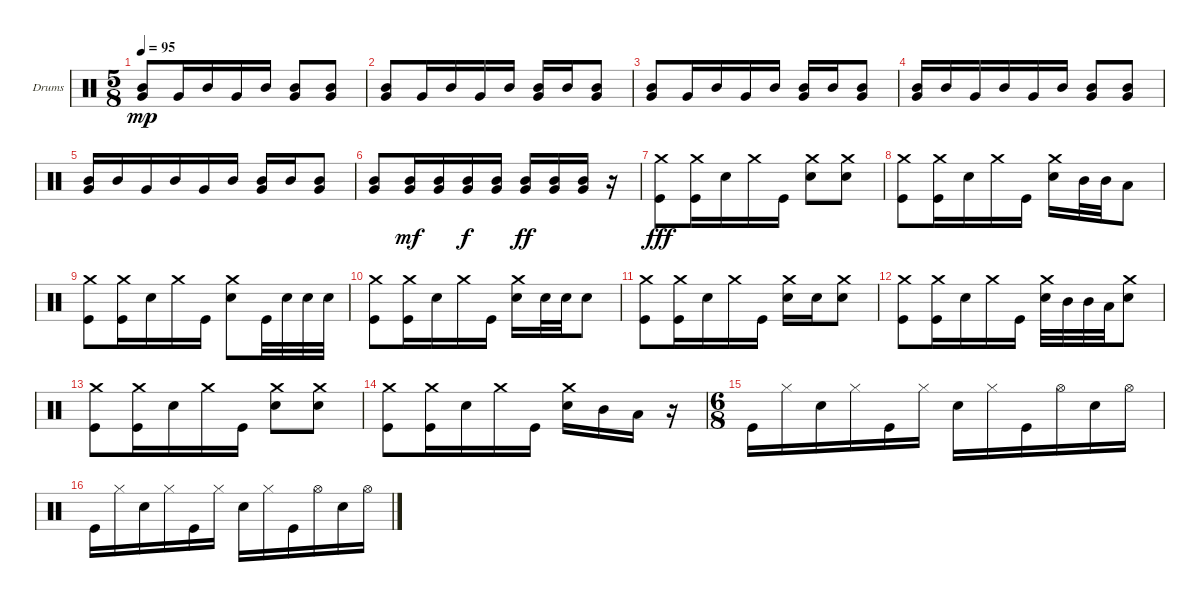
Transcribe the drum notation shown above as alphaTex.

\bracketExtendMode groupsimilarinstruments
\firstSystemTrackNameOrientation horizontal
\otherSystemsTrackNameOrientation horizontal
\track ("Andrew Forsman" "Drums") {instrument percussion}
\staff {score}
\articulation defaults
\ts (5 8)
\tempo 95
\clef neutral
\scale
0.262911
\ks c
("Mid Tom (hit)" "Very Low Tom (hit)").8{dy mp} "Very Low Tom (hit)".16 "Mid Tom (hit)".16 "Very Low Tom (hit)".16 "Mid Tom (hit)".16 ("Mid Tom (hit)" "Very Low Tom (hit)").8 ("Very Low Tom (hit)" "Mid Tom (hit)").8 |
\scale
0.333333 ("Mid Tom (hit)" "Very Low Tom (hit)").8 "Very Low Tom (hit)".16 "Mid Tom (hit)".16 "Very Low Tom (hit)".16 "Mid Tom (hit)".16 ("Mid Tom (hit)" "Very Low Tom (hit)").16 "Mid Tom (hit)".16 ("Very Low Tom (hit)" "Mid Tom (hit)").8 |
("Mid Tom (hit)" "Very Low Tom (hit)").8 "Very Low Tom (hit)".16 "Mid Tom (hit)".16 "Very Low Tom (hit)".16 "Mid Tom (hit)".16 ("Mid Tom (hit)" "Very Low Tom (hit)").16 "Mid Tom (hit)".16 ("Very Low Tom (hit)" "Mid Tom (hit)").8 |
("Mid Tom (hit)" "Very Low Tom (hit)").16 "Mid Tom (hit)".16 "Very Low Tom (hit)".16 "Mid Tom (hit)".16 "Very Low Tom (hit)".16 "Mid Tom (hit)".16 ("Mid Tom (hit)" "Very Low Tom (hit)").8 ("Very Low Tom (hit)" "Mid Tom (hit)").8 |
("Mid Tom (hit)" "Very Low Tom (hit)").16 "Mid Tom (hit)".16 "Very Low Tom (hit)".16 "Mid Tom (hit)".16 "Very Low Tom (hit)".16 "Mid Tom (hit)".16 ("Mid Tom (hit)" "Very Low Tom (hit)").16 "Mid Tom (hit)".16 ("Very Low Tom (hit)" "Mid Tom (hit)").8 |
("Mid Tom (hit)" "Very Low Tom (hit)").8 ("Mid Tom (hit)" "Very Low Tom (hit)").16{dy mf} ("Very Low Tom (hit)" "Mid Tom (hit)").16 ("Mid Tom (hit)" "Very Low Tom (hit)").16{dy f} ("Mid Tom (hit)" "Very Low Tom (hit)").16 ("Very Low Tom (hit)" "Mid Tom (hit)").16{dy ff} ("Very Low Tom (hit)" "Mid Tom (hit)").16 ("Mid Tom (hit)" "Very Low Tom (hit)").16 r.16 |
\beaming (8 3 2)
\scale
0.333333 ("Kick (hit)" "Crash medium (hit)").8{dy fff} ("Kick (hit)" "Crash medium (hit)").16 "Snare (hit) 2".16 "Crash medium (hit)".16 "Kick (hit)".16 ("Snare (hit) 2" "Crash medium (hit)").8 ("Snare (hit) 2" "Crash medium (hit)").8 |
\scale
0.333333 ("Kick (hit)" "Crash medium (hit)").8 ("Kick (hit)" "Crash medium (hit)").16 "Snare (hit) 2".16 "Crash medium (hit)".16 "Kick (hit)".16 ("Snare (hit) 2" "Crash medium (hit)").16 "Mid Tom (hit)".32 "Mid Tom (hit)".32 "Low Tom (hit)".8 |
\scale
0.333333 ("Kick (hit)" "Crash medium (hit)").8 ("Kick (hit)" "Crash medium (hit)").16 "Snare (hit) 2".16 "Crash medium (hit)".16 "Kick (hit)".16 ("Snare (hit) 2" "Crash medium (hit)").8 "Kick (hit)".32 "Snare (hit) 2".32 "Snare (hit) 2".32 "Snare (hit) 2".32 |
\scale
0.333333 ("Kick (hit)" "Crash medium (hit)").8 ("Kick (hit)" "Crash medium (hit)").16 "Snare (hit) 2".16 "Crash medium (hit)".16 "Kick (hit)".16 ("Snare (hit) 2" "Crash medium (hit)").16 "Snare (hit) 2".32 "Snare (hit) 2".32 "Snare (hit) 2".8 |
\scale
0.333333 ("Kick (hit)" "Crash medium (hit)").8 ("Kick (hit)" "Crash medium (hit)").16 "Snare (hit) 2".16 "Crash medium (hit)".16 "Kick (hit)".16 ("Snare (hit) 2" "Crash medium (hit)").16 "Snare (hit) 2".16 ("Snare (hit) 2" "Crash medium (hit)").8 |
\scale
0.333333 ("Kick (hit)" "Crash medium (hit)").8 ("Kick (hit)" "Crash medium (hit)").16 "Snare (hit) 2".16 "Crash medium (hit)".16 "Kick (hit)".16 ("Snare (hit) 2" "Crash medium (hit)").32 "Mid Tom (hit)".32 "Mid Tom (hit)".32 "Low Tom (hit)".32 ("Snare (hit) 2" "Crash medium (hit)").8 |
\scale
0.333333 ("Kick (hit)" "Crash medium (hit)").8 ("Kick (hit)" "Crash medium (hit)").16 "Snare (hit) 2".16 "Crash medium (hit)".16 "Kick (hit)".16 ("Snare (hit) 2" "Crash medium (hit)").8 ("Snare (hit) 2" "Crash medium (hit)").8 |
\scale
0.333333 ("Kick (hit)" "Crash medium (hit)").8 ("Kick (hit)" "Crash medium (hit)").16 "Snare (hit) 2".16 "Crash medium (hit)".16 "Kick (hit)".16 ("Snare (hit) 2" "Crash medium (hit)").16 "Mid Tom (hit)".16 "Low Tom (hit)".16 r.16 |
\ts (6 8)
\beaming (8 3 3)
\scale
0.474178 "Kick (hit)".16 "Hi-Hat (closed)".16 "Snare (hit) 2".16 "Hi-Hat (closed)".16 "Kick (hit)".16 "Hi-Hat (closed)".16 "Snare (hit) 2".16 "Hi-Hat (closed)".16 "Kick (hit)".16 "Hi-Hat (open)".16 "Snare (hit) 2".16 "Hi-Hat (open)".16 |
\scale
0.262911 "Kick (hit)".16 "Hi-Hat (closed)".16 "Snare (hit) 2".16 "Hi-Hat (closed)".16 "Kick (hit)".16 "Hi-Hat (closed)".16 "Snare (hit) 2".16 "Hi-Hat (closed)".16 "Kick (hit)".16 "Hi-Hat (open)".16 "Snare (hit) 2".16 "Hi-Hat (open)".16
